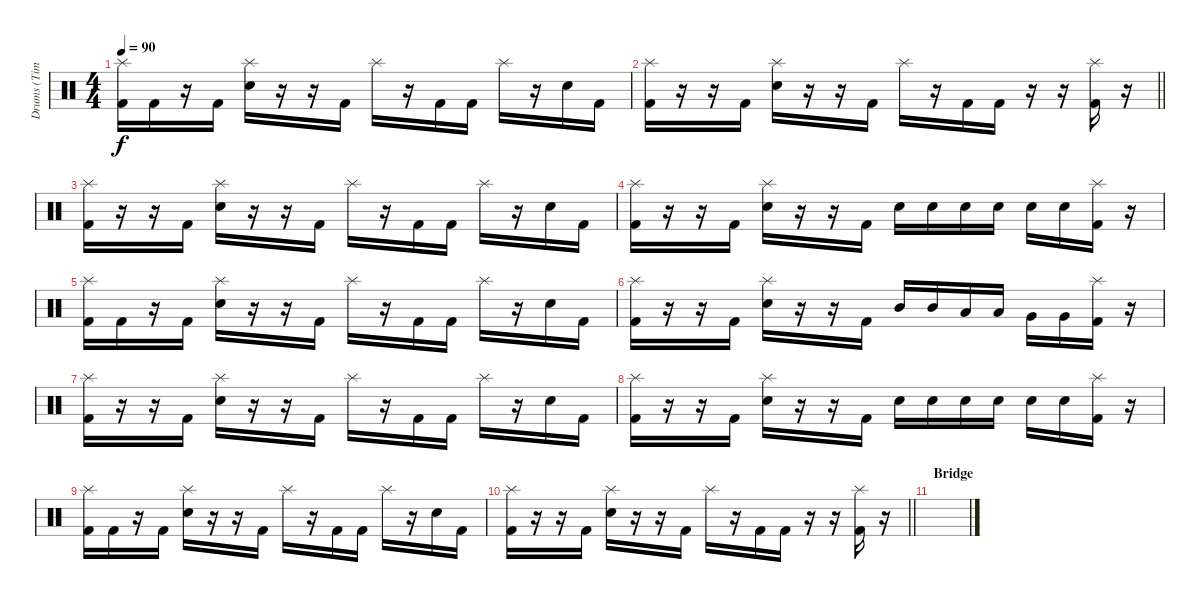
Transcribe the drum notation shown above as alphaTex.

\track ("Drums (Tim Watts)" "Drums (Tim") {instrument percussion}
\staff {score}
\articulation defaults
\ts (4 4)
\tempo 90
\clef neutral
\ks c
("Splash (hit)" "Kick (hit) 2").16{dy f} "Kick (hit) 2".16 r.16 "Kick (hit) 2".16 ("Splash (hit)" "Snare (hit) 2").16 r.16 r.16 "Kick (hit) 2".16 "Splash (hit)".16 r.16 "Kick (hit) 2".16 "Kick (hit) 2".16 "Splash (hit)".16 r.16 "Snare (hit) 2".16 "Kick (hit) 2".16 |
\barLineRight lightlight
("Splash (hit)" "Kick (hit) 2").16 r.16 r.16 "Kick (hit) 2".16 ("Splash (hit)" "Snare (hit) 2").16 r.16 r.16 "Kick (hit) 2".16 "Splash (hit)".16 r.16 "Kick (hit) 2".16 "Kick (hit) 2".16 r.16 r.16 ("Splash (hit)" "Kick (hit) 2").16 r.16 |
("Splash (hit)" "Kick (hit) 2").16 r.16 r.16 "Kick (hit) 2".16 ("Splash (hit)" "Snare (hit) 2").16 r.16 r.16 "Kick (hit) 2".16 "Splash (hit)".16 r.16 "Kick (hit) 2".16 "Kick (hit) 2".16 "Splash (hit)".16 r.16 "Snare (hit) 2".16 "Kick (hit) 2".16 |
("Splash (hit)" "Kick (hit) 2").16 r.16 r.16 "Kick (hit) 2".16 ("Splash (hit)" "Snare (hit) 2").16 r.16 r.16 "Kick (hit) 2".16 "Snare (hit) 2".16 "Snare (hit) 2".16 "Snare (hit) 2".16 "Snare (hit) 2".16 "Snare (hit) 2".16 "Snare (hit) 2".16 ("Splash (hit)" "Kick (hit) 2").16 r.16 |
("Splash (hit)" "Kick (hit) 2").16 "Kick (hit) 2".16 r.16 "Kick (hit) 2".16 ("Splash (hit)" "Snare (hit) 2").16 r.16 r.16 "Kick (hit) 2".16 "Splash (hit)".16 r.16 "Kick (hit) 2".16 "Kick (hit) 2".16 "Splash (hit)".16 r.16 "Snare (hit) 2".16 "Kick (hit) 2".16 |
("Splash (hit)" "Kick (hit) 2").16 r.16 r.16 "Kick (hit) 2".16 ("Splash (hit)" "Snare (hit) 2").16 r.16 r.16 "Kick (hit) 2".16 "Mid Tom (hit)".16 "Mid Tom (hit)".16 "Low Tom (hit)".16 "Low Tom (hit)".16 "Very Low Tom (hit)".16 "Very Low Tom (hit)".16 ("Splash (hit)" "Kick (hit) 2").16 r.16 |
("Splash (hit)" "Kick (hit) 2").16 r.16 r.16 "Kick (hit) 2".16 ("Splash (hit)" "Snare (hit) 2").16 r.16 r.16 "Kick (hit) 2".16 "Splash (hit)".16 r.16 "Kick (hit) 2".16 "Kick (hit) 2".16 "Splash (hit)".16 r.16 "Snare (hit) 2".16 "Kick (hit) 2".16 |
("Splash (hit)" "Kick (hit) 2").16 r.16 r.16 "Kick (hit) 2".16 ("Splash (hit)" "Snare (hit) 2").16 r.16 r.16 "Kick (hit) 2".16 "Snare (hit) 2".16 "Snare (hit) 2".16 "Snare (hit) 2".16 "Snare (hit) 2".16 "Snare (hit) 2".16 "Snare (hit) 2".16 ("Splash (hit)" "Kick (hit) 2").16 r.16 |
("Splash (hit)" "Kick (hit) 2").16 "Kick (hit) 2".16 r.16 "Kick (hit) 2".16 ("Splash (hit)" "Snare (hit) 2").16 r.16 r.16 "Kick (hit) 2".16 "Splash (hit)".16 r.16 "Kick (hit) 2".16 "Kick (hit) 2".16 "Splash (hit)".16 r.16 "Snare (hit) 2".16 "Kick (hit) 2".16 |
\barLineRight lightlight
("Splash (hit)" "Kick (hit) 2").16 r.16 r.16 "Kick (hit) 2".16 ("Splash (hit)" "Snare (hit) 2").16 r.16 r.16 "Kick (hit) 2".16 "Splash (hit)".16 r.16 "Kick (hit) 2".16 "Kick (hit) 2".16 r.16 r.16 ("Splash (hit)" "Kick (hit) 2").16 r.16 |
\section ("" "Bridge")
